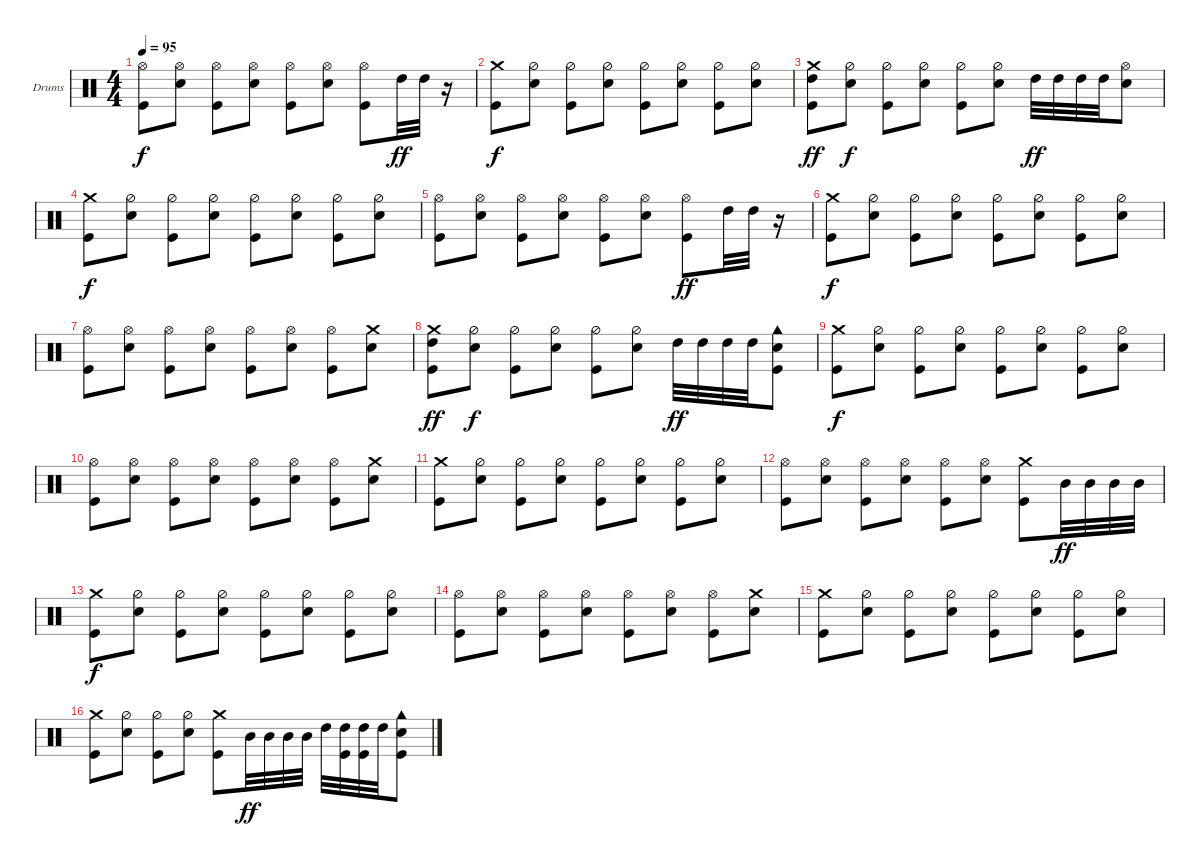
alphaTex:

\defaultSystemsLayout 4
\bracketExtendMode groupsimilarinstruments
\firstSystemTrackNameOrientation horizontal
\otherSystemsTrackNameOrientation horizontal
\track ("Drumkit" "Drums") {instrument percussion}
\staff {score}
\articulation defaults
\ts (4 4)
\tempo 95
\clef neutral
\scale
0.333333
\ks c
("Kick (hit)" "Hi-Hat (open)").8{dy f} ("Snare (hit) 2" "Hi-Hat (open)").8 ("Kick (hit)" "Hi-Hat (open)").8 ("Snare (hit) 2" "Hi-Hat (open)").8 ("Kick (hit)" "Hi-Hat (open)").8 ("Snare (hit) 2" "Hi-Hat (open)").8 ("Kick (hit)" "Hi-Hat (open)").8 "High Tom (hit)".32{dy ff} "High Tom (hit)".32 r.16 |
\scale
0.333333 ("Kick (hit)" "Crash medium (hit)").8{dy f} ("Snare (hit) 2" "Hi-Hat (half)").8 ("Kick (hit)" "Hi-Hat (half)").8 ("Snare (hit) 2" "Hi-Hat (half)").8 ("Kick (hit)" "Hi-Hat (half)").8 ("Snare (hit) 2" "Hi-Hat (half)").8 ("Kick (hit)" "Hi-Hat (half)").8 ("Snare (hit) 2" "Hi-Hat (half)").8 |
\scale
0.333333 ("Kick (hit)" "Crash medium (hit)" "High Tom (hit)").8{dy ff} ("Snare (hit) 2" "Hi-Hat (half)").8{dy f} ("Kick (hit)" "Hi-Hat (half)").8 ("Snare (hit) 2" "Hi-Hat (half)").8 ("Kick (hit)" "Hi-Hat (half)").8 ("Snare (hit) 2" "Hi-Hat (half)").8 "High Tom (hit)".32{dy ff} "High Tom (hit)".32 "High Tom (hit)".32 "High Tom (hit)".32 ("Snare (hit) 2" "Hi-Hat (open)").8 |
\scale
0.333333 ("Kick (hit)" "Crash medium (hit)").8{dy f} ("Snare (hit) 2" "Hi-Hat (half)").8 ("Kick (hit)" "Hi-Hat (half)").8 ("Snare (hit) 2" "Hi-Hat (half)").8 ("Kick (hit)" "Hi-Hat (half)").8 ("Snare (hit) 2" "Hi-Hat (half)").8 ("Kick (hit)" "Hi-Hat (half)").8 ("Snare (hit) 2" "Hi-Hat (half)").8 |
\scale
0.333333 ("Kick (hit)" "Hi-Hat (open)").8 ("Snare (hit) 2" "Hi-Hat (open)").8 ("Kick (hit)" "Hi-Hat (open)").8 ("Snare (hit) 2" "Hi-Hat (open)").8 ("Kick (hit)" "Hi-Hat (open)").8 ("Snare (hit) 2" "Hi-Hat (open)").8 ("Kick (hit)" "Hi-Hat (open)").8{dy ff} "High Tom (hit)".32 "High Tom (hit)".32 r.16 |
\scale
0.333333 ("Kick (hit)" "Crash medium (hit)").8{dy f} ("Snare (hit) 2" "Hi-Hat (half)").8 ("Kick (hit)" "Hi-Hat (half)").8 ("Snare (hit) 2" "Hi-Hat (half)").8 ("Kick (hit)" "Hi-Hat (half)").8 ("Snare (hit) 2" "Hi-Hat (half)").8 ("Kick (hit)" "Hi-Hat (half)").8 ("Snare (hit) 2" "Hi-Hat (half)").8 |
\scale
0.333333 ("Kick (hit)" "Hi-Hat (open)").8 ("Snare (hit) 2" "Hi-Hat (open)").8 ("Kick (hit)" "Hi-Hat (open)").8 ("Snare (hit) 2" "Hi-Hat (open)").8 ("Kick (hit)" "Hi-Hat (open)").8 ("Snare (hit) 2" "Hi-Hat (open)").8 ("Kick (hit)" "Hi-Hat (open)").8 ("Crash medium (hit)" "Snare (hit) 2").8 |
\scale
0.333333 ("Kick (hit)" "Crash medium (hit)" "High Tom (hit)").8{dy ff} ("Snare (hit) 2" "Hi-Hat (half)").8{dy f} ("Kick (hit)" "Hi-Hat (half)").8 ("Snare (hit) 2" "Hi-Hat (half)").8 ("Kick (hit)" "Hi-Hat (half)").8 ("Snare (hit) 2" "Hi-Hat (half)").8 "High Tom (hit)".32{dy ff} "High Tom (hit)".32 "High Tom (hit)".32 "High Tom (hit)".32 ("Snare (hit) 2" "Cowbell high (hit)" "Kick (hit)").8 |
\scale
0.333333 ("Kick (hit)" "Crash medium (hit)").8{dy f} ("Snare (hit) 2" "Hi-Hat (half)").8 ("Kick (hit)" "Hi-Hat (half)").8 ("Snare (hit) 2" "Hi-Hat (half)").8 ("Kick (hit)" "Hi-Hat (half)").8 ("Snare (hit) 2" "Hi-Hat (half)").8 ("Kick (hit)" "Hi-Hat (half)").8 ("Snare (hit) 2" "Hi-Hat (half)").8 |
\scale
0.333333 ("Kick (hit)" "Hi-Hat (open)").8 ("Snare (hit) 2" "Hi-Hat (open)").8 ("Kick (hit)" "Hi-Hat (open)").8 ("Snare (hit) 2" "Hi-Hat (open)").8 ("Kick (hit)" "Hi-Hat (open)").8 ("Snare (hit) 2" "Hi-Hat (open)").8 ("Kick (hit)" "Hi-Hat (open)").8 ("Crash medium (hit)" "Snare (hit) 2").8 |
\scale
0.333333 ("Kick (hit)" "Crash medium (hit)").8 ("Snare (hit) 2" "Hi-Hat (half)").8 ("Kick (hit)" "Hi-Hat (half)").8 ("Snare (hit) 2" "Hi-Hat (half)").8 ("Kick (hit)" "Hi-Hat (half)").8 ("Snare (hit) 2" "Hi-Hat (half)").8 ("Kick (hit)" "Hi-Hat (half)").8 ("Snare (hit) 2" "Hi-Hat (half)").8 |
\scale
0.333333 ("Kick (hit)" "Hi-Hat (open)").8 ("Snare (hit) 2" "Hi-Hat (open)").8 ("Kick (hit)" "Hi-Hat (open)").8 ("Snare (hit) 2" "Hi-Hat (open)").8 ("Kick (hit)" "Hi-Hat (open)").8 ("Snare (hit) 2" "Hi-Hat (open)").8 ("Kick (hit)" "Crash medium (hit)").8 "Mid Tom (hit)".32{dy ff} "Mid Tom (hit)".32 "Mid Tom (hit)".32 "Mid Tom (hit)".32 |
\scale
0.333333 ("Kick (hit)" "Crash medium (hit)").8{dy f} ("Snare (hit) 2" "Hi-Hat (half)").8 ("Kick (hit)" "Hi-Hat (half)").8 ("Snare (hit) 2" "Hi-Hat (half)").8 ("Kick (hit)" "Hi-Hat (half)").8 ("Snare (hit) 2" "Hi-Hat (half)").8 ("Kick (hit)" "Hi-Hat (half)").8 ("Snare (hit) 2" "Hi-Hat (half)").8 |
\scale
0.333333 ("Kick (hit)" "Hi-Hat (open)").8 ("Snare (hit) 2" "Hi-Hat (open)").8 ("Kick (hit)" "Hi-Hat (open)").8 ("Snare (hit) 2" "Hi-Hat (open)").8 ("Kick (hit)" "Hi-Hat (open)").8 ("Snare (hit) 2" "Hi-Hat (open)").8 ("Kick (hit)" "Hi-Hat (open)").8 ("Crash medium (hit)" "Snare (hit) 2").8 |
\scale
0.333333 ("Kick (hit)" "Crash medium (hit)").8 ("Snare (hit) 2" "Hi-Hat (half)").8 ("Kick (hit)" "Hi-Hat (half)").8 ("Snare (hit) 2" "Hi-Hat (half)").8 ("Kick (hit)" "Hi-Hat (half)").8 ("Snare (hit) 2" "Hi-Hat (half)").8 ("Kick (hit)" "Hi-Hat (half)").8 ("Snare (hit) 2" "Hi-Hat (half)").8 |
\scale
0.333333 ("Kick (hit)" "Crash medium (hit)").8 ("Snare (hit) 2" "Hi-Hat (half)").8 ("Kick (hit)" "Hi-Hat (half)").8 ("Snare (hit) 2" "Hi-Hat (half)").8 ("Kick (hit)" "Crash medium (hit)").8 "Mid Tom (hit)".32{dy ff} "Mid Tom (hit)".32 "Mid Tom (hit)".32 "Mid Tom (hit)".32 "High Tom (hit)".32 ("High Tom (hit)" "Kick (hit)").32 ("High Tom (hit)" "Kick (hit)").32 "High Tom (hit)".32 ("Snare (hit) 2" "Cowbell high (hit)" "Kick (hit)").8
